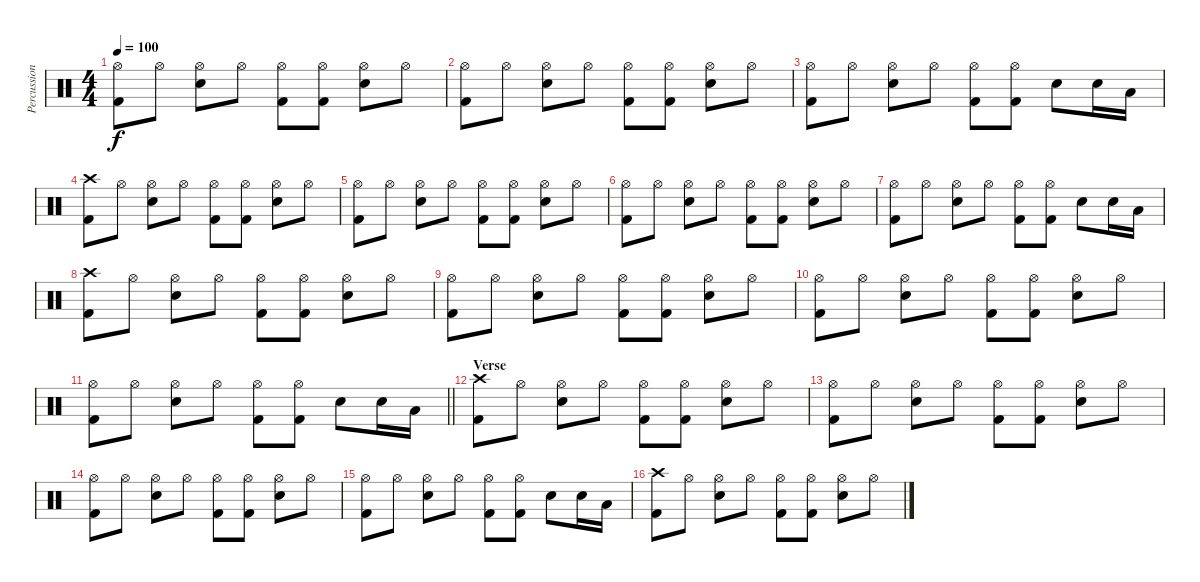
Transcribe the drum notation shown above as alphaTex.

\track ("Percussion" "Percussion") {instrument percussion}
\staff {score}
\articulation defaults
\ts (4 4)
\tempo 100
\clef neutral
\ks c
("Hi-Hat (open)" "Kick (hit) 2").8{dy f} "Hi-Hat (open)".8 ("Hi-Hat (open)" "Electric Snare (hit)").8 "Hi-Hat (open)".8 ("Hi-Hat (open)" "Kick (hit) 2").8 ("Hi-Hat (open)" "Kick (hit) 2").8 ("Hi-Hat (open)" "Electric Snare (hit)").8 "Hi-Hat (open)".8 |
("Hi-Hat (open)" "Kick (hit) 2").8 "Hi-Hat (open)".8 ("Hi-Hat (open)" "Electric Snare (hit)").8 "Hi-Hat (open)".8 ("Hi-Hat (open)" "Kick (hit) 2").8 ("Hi-Hat (open)" "Kick (hit) 2").8 ("Hi-Hat (open)" "Electric Snare (hit)").8 "Hi-Hat (open)".8 |
("Hi-Hat (open)" "Kick (hit) 2").8 "Hi-Hat (open)".8 ("Hi-Hat (open)" "Electric Snare (hit)").8 "Hi-Hat (open)".8 ("Hi-Hat (open)" "Kick (hit) 2").8 ("Hi-Hat (open)" "Kick (hit) 2").8 "Electric Snare (hit)".8 "Electric Snare (hit)".16 "Low Tom (hit)".16 |
("Crash high (hit)" "Kick (hit) 2").8 "Hi-Hat (open)".8 ("Hi-Hat (open)" "Electric Snare (hit)").8 "Hi-Hat (open)".8 ("Hi-Hat (open)" "Kick (hit) 2").8 ("Hi-Hat (open)" "Kick (hit) 2").8 ("Hi-Hat (open)" "Electric Snare (hit)").8 "Hi-Hat (open)".8 |
("Hi-Hat (open)" "Kick (hit) 2").8 "Hi-Hat (open)".8 ("Hi-Hat (open)" "Electric Snare (hit)").8 "Hi-Hat (open)".8 ("Hi-Hat (open)" "Kick (hit) 2").8 ("Hi-Hat (open)" "Kick (hit) 2").8 ("Hi-Hat (open)" "Electric Snare (hit)").8 "Hi-Hat (open)".8 |
("Hi-Hat (open)" "Kick (hit) 2").8 "Hi-Hat (open)".8 ("Hi-Hat (open)" "Electric Snare (hit)").8 "Hi-Hat (open)".8 ("Hi-Hat (open)" "Kick (hit) 2").8 ("Hi-Hat (open)" "Kick (hit) 2").8 ("Hi-Hat (open)" "Electric Snare (hit)").8 "Hi-Hat (open)".8 |
("Hi-Hat (open)" "Kick (hit) 2").8 "Hi-Hat (open)".8 ("Hi-Hat (open)" "Electric Snare (hit)").8 "Hi-Hat (open)".8 ("Hi-Hat (open)" "Kick (hit) 2").8 ("Hi-Hat (open)" "Kick (hit) 2").8 "Electric Snare (hit)".8 "Electric Snare (hit)".16 "Low Tom (hit)".16 |
("Crash high (hit)" "Kick (hit) 2").8 "Hi-Hat (open)".8 ("Hi-Hat (open)" "Electric Snare (hit)").8 "Hi-Hat (open)".8 ("Hi-Hat (open)" "Kick (hit) 2").8 ("Hi-Hat (open)" "Kick (hit) 2").8 ("Hi-Hat (open)" "Electric Snare (hit)").8 "Hi-Hat (open)".8 |
("Hi-Hat (open)" "Kick (hit) 2").8 "Hi-Hat (open)".8 ("Hi-Hat (open)" "Electric Snare (hit)").8 "Hi-Hat (open)".8 ("Hi-Hat (open)" "Kick (hit) 2").8 ("Hi-Hat (open)" "Kick (hit) 2").8 ("Hi-Hat (open)" "Electric Snare (hit)").8 "Hi-Hat (open)".8 |
("Hi-Hat (open)" "Kick (hit) 2").8 "Hi-Hat (open)".8 ("Hi-Hat (open)" "Electric Snare (hit)").8 "Hi-Hat (open)".8 ("Hi-Hat (open)" "Kick (hit) 2").8 ("Hi-Hat (open)" "Kick (hit) 2").8 ("Hi-Hat (open)" "Electric Snare (hit)").8 "Hi-Hat (open)".8 |
\barLineRight lightlight
("Hi-Hat (open)" "Kick (hit) 2").8 "Hi-Hat (open)".8 ("Hi-Hat (open)" "Electric Snare (hit)").8 "Hi-Hat (open)".8 ("Hi-Hat (open)" "Kick (hit) 2").8 ("Hi-Hat (open)" "Kick (hit) 2").8 "Electric Snare (hit)".8 "Electric Snare (hit)".16 "Low Tom (hit)".16 |
\section ("" "Verse")
("Crash high (hit)" "Kick (hit) 2").8 "Hi-Hat (open)".8 ("Hi-Hat (open)" "Electric Snare (hit)").8 "Hi-Hat (open)".8 ("Hi-Hat (open)" "Kick (hit) 2").8 ("Hi-Hat (open)" "Kick (hit) 2").8 ("Hi-Hat (open)" "Electric Snare (hit)").8 "Hi-Hat (open)".8 |
("Hi-Hat (open)" "Kick (hit) 2").8 "Hi-Hat (open)".8 ("Hi-Hat (open)" "Electric Snare (hit)").8 "Hi-Hat (open)".8 ("Hi-Hat (open)" "Kick (hit) 2").8 ("Hi-Hat (open)" "Kick (hit) 2").8 ("Hi-Hat (open)" "Electric Snare (hit)").8 "Hi-Hat (open)".8 |
("Hi-Hat (open)" "Kick (hit) 2").8 "Hi-Hat (open)".8 ("Hi-Hat (open)" "Electric Snare (hit)").8 "Hi-Hat (open)".8 ("Hi-Hat (open)" "Kick (hit) 2").8 ("Hi-Hat (open)" "Kick (hit) 2").8 ("Hi-Hat (open)" "Electric Snare (hit)").8 "Hi-Hat (open)".8 |
("Hi-Hat (open)" "Kick (hit) 2").8 "Hi-Hat (open)".8 ("Hi-Hat (open)" "Electric Snare (hit)").8 "Hi-Hat (open)".8 ("Hi-Hat (open)" "Kick (hit) 2").8 ("Hi-Hat (open)" "Kick (hit) 2").8 "Electric Snare (hit)".8 "Electric Snare (hit)".16 "Low Tom (hit)".16 |
("Crash high (hit)" "Kick (hit) 2").8 "Hi-Hat (open)".8 ("Hi-Hat (open)" "Electric Snare (hit)").8 "Hi-Hat (open)".8 ("Hi-Hat (open)" "Kick (hit) 2").8 ("Hi-Hat (open)" "Kick (hit) 2").8 ("Hi-Hat (open)" "Electric Snare (hit)").8 "Hi-Hat (open)".8
